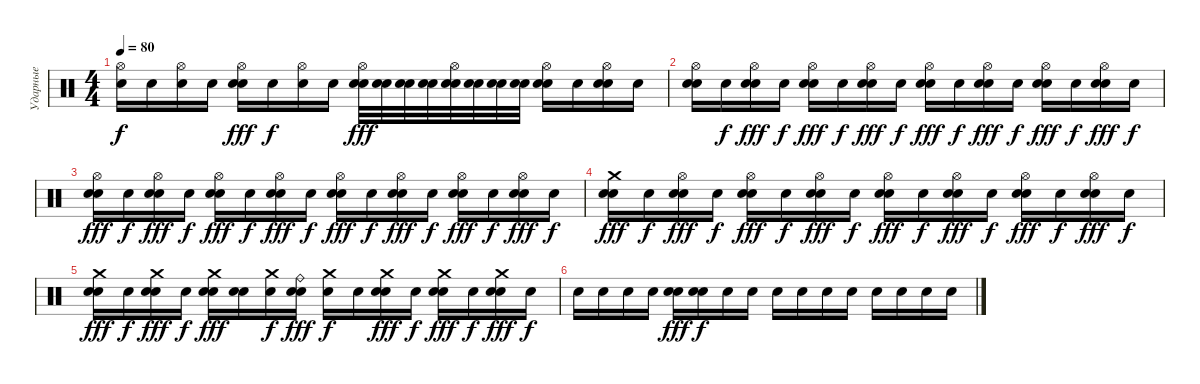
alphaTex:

\track ("Ударные" "Ударные") {instrument percussion}
\staff
\articulation defaults
\ts (4 4)
\tempo 80
\clef neutral
\ks c
("Hi-Hat (open)" "Snare (hit)").16{dy f} "Snare (hit)".16 ("Hi-Hat (open)" "Snare (hit)").16 "Snare (hit)".16 ("Hi-Hat (open)" "Electric Snare (hit)" "Snare (hit)").16{dy fff} "Snare (hit)".16{dy f} ("Hi-Hat (open)" "Snare (hit)").16 "Snare (hit)".16 ("Hi-Hat (open)" "Electric Snare (hit)" "Snare (hit)").32{dy fff} ("Electric Snare (hit)" "Snare (hit)").32 ("Electric Snare (hit)" "Snare (hit)").32 ("Electric Snare (hit)" "Snare (hit)").32 ("Hi-Hat (open)" "Electric Snare (hit)" "Snare (hit)").32 ("Electric Snare (hit)" "Snare (hit)").32 ("Electric Snare (hit)" "Snare (hit)").32 ("Electric Snare (hit)" "Snare (hit)").32 ("Hi-Hat (open)" "Electric Snare (hit)" "Snare (hit)").16 "Snare (hit)".16 ("Hi-Hat (open)" "Electric Snare (hit)" "Snare (hit)").16 "Snare (hit)".16 |
("Hi-Hat (open)" "Electric Snare (hit)" "Snare (hit)").16 "Snare (hit)".16{dy f} ("Hi-Hat (open)" "Electric Snare (hit)" "Snare (hit)").16{dy fff} "Snare (hit)".16{dy f} ("Hi-Hat (open)" "Electric Snare (hit)" "Snare (hit)").16{dy fff} "Snare (hit)".16{dy f} ("Hi-Hat (open)" "Electric Snare (hit)" "Snare (hit)").16{dy fff} "Snare (hit)".16{dy f} ("Hi-Hat (open)" "Electric Snare (hit)" "Snare (hit)").16{dy fff} "Snare (hit)".16{dy f} ("Hi-Hat (open)" "Electric Snare (hit)" "Snare (hit)").16{dy fff} "Snare (hit)".16{dy f} ("Hi-Hat (open)" "Electric Snare (hit)" "Snare (hit)").16{dy fff} "Snare (hit)".16{dy f} ("Hi-Hat (open)" "Electric Snare (hit)" "Snare (hit)").16{dy fff} "Snare (hit)".16{dy f} |
("Hi-Hat (open)" "Electric Snare (hit)" "Snare (hit)").16{dy fff} "Snare (hit)".16{dy f} ("Hi-Hat (open)" "Electric Snare (hit)" "Snare (hit)").16{dy fff} "Snare (hit)".16{dy f} ("Hi-Hat (open)" "Electric Snare (hit)" "Snare (hit)").16{dy fff} "Snare (hit)".16{dy f} ("Hi-Hat (open)" "Electric Snare (hit)" "Snare (hit)").16{dy fff} "Snare (hit)".16{dy f} ("Hi-Hat (open)" "Electric Snare (hit)" "Snare (hit)").16{dy fff} "Snare (hit)".16{dy f} ("Hi-Hat (open)" "Electric Snare (hit)" "Snare (hit)").16{dy fff} "Snare (hit)".16{dy f} ("Hi-Hat (open)" "Electric Snare (hit)" "Snare (hit)").16{dy fff} "Snare (hit)".16{dy f} ("Hi-Hat (open)" "Electric Snare (hit)" "Snare (hit)").16{dy fff} "Snare (hit)".16{dy f} |
("Crash medium (hit)" "Electric Snare (hit)" "Snare (hit)").16{dy fff} "Snare (hit)".16{dy f} ("Hi-Hat (open)" "Electric Snare (hit)" "Snare (hit)").16{dy fff} "Snare (hit)".16{dy f} ("Hi-Hat (open)" "Electric Snare (hit)" "Snare (hit)").16{dy fff} "Snare (hit)".16{dy f} ("Hi-Hat (open)" "Electric Snare (hit)" "Snare (hit)").16{dy fff} "Snare (hit)".16{dy f} ("Hi-Hat (open)" "Electric Snare (hit)" "Snare (hit)").16{dy fff} "Snare (hit)".16{dy f} ("Hi-Hat (open)" "Electric Snare (hit)" "Snare (hit)").16{dy fff} "Snare (hit)".16{dy f} ("Hi-Hat (open)" "Electric Snare (hit)" "Snare (hit)").16{dy fff} "Snare (hit)".16{dy f} ("Hi-Hat (open)" "Electric Snare (hit)" "Snare (hit)").16{dy fff} "Snare (hit)".16{dy f} |
("Crash medium (hit)" "Electric Snare (hit)" "Snare (hit)").16{dy fff} "Snare (hit)".16{dy f} ("Crash medium (hit)" "Electric Snare (hit)" "Snare (hit)").16{dy fff} "Snare (hit)".16{dy f} ("Crash medium (hit)" "Electric Snare (hit)" "Snare (hit)").16{dy fff} ("Electric Snare (hit)" "Snare (hit)").16 ("Crash medium (hit)" "Snare (hit)").16{dy f} ("Ride (bell)" "Snare (hit) 2" "Snare (hit)").16{dy fff} ("Crash medium (hit)" "Snare (hit)").16{dy f} "Snare (hit)".16 ("Crash medium (hit)" "Electric Snare (hit)" "Snare (hit)").16{dy fff} "Snare (hit)".16{dy f} ("Crash medium (hit)" "Electric Snare (hit)" "Snare (hit)").16{dy fff} "Snare (hit)".16{dy f} ("Crash medium (hit)" "Electric Snare (hit)" "Snare (hit)").16{dy fff} "Snare (hit)".16{dy f} |
"Snare (hit)".16 "Snare (hit)".16 "Snare (hit)".16 "Snare (hit)".16 ("Electric Snare (hit)" "Snare (hit)").16{dy fff} ("Electric Snare (hit)" "Snare (hit)").16{dy f} "Snare (hit)".16 "Snare (hit)".16 "Snare (hit)".16 "Snare (hit)".16 "Snare (hit)".16 "Snare (hit)".16 "Snare (hit)".16 "Snare (hit)".16 "Snare (hit)".16 "Snare (hit)".16
